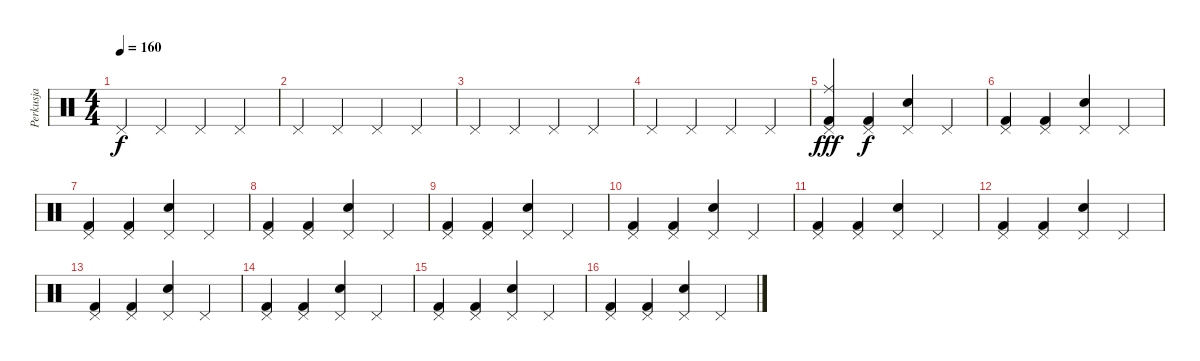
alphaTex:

\track ("Perkusja" "Perkusja") {instrument percussion}
\staff {score}
\articulation defaults
\ts (4 4)
\tempo 160
\clef neutral
\ks c "Pedal Hi-Hat (hit)".4{dy f} "Pedal Hi-Hat (hit)".4 "Pedal Hi-Hat (hit)".4 "Pedal Hi-Hat (hit)".4
|
"Pedal Hi-Hat (hit)".4 "Pedal Hi-Hat (hit)".4 "Pedal Hi-Hat (hit)".4 "Pedal Hi-Hat (hit)".4 |
"Pedal Hi-Hat (hit)".4 "Pedal Hi-Hat (hit)".4 "Pedal Hi-Hat (hit)".4 "Pedal Hi-Hat (hit)".4 |
"Pedal Hi-Hat (hit)".4 "Pedal Hi-Hat (hit)".4 "Pedal Hi-Hat (hit)".4 "Pedal Hi-Hat (hit)".4 |
("Pedal Hi-Hat (hit)" "Ride (middle)" "Kick (hit) 2").4{dy fff} ("Pedal Hi-Hat (hit)" "Kick (hit) 2").4{dy f} ("Pedal Hi-Hat (hit)" "Snare (hit) 2").4 "Pedal Hi-Hat (hit)".4 |
("Pedal Hi-Hat (hit)" "Kick (hit) 2").4 ("Pedal Hi-Hat (hit)" "Kick (hit) 2").4 ("Pedal Hi-Hat (hit)" "Snare (hit) 2").4 "Pedal Hi-Hat (hit)".4 |
("Pedal Hi-Hat (hit)" "Kick (hit) 2").4 ("Pedal Hi-Hat (hit)" "Kick (hit) 2").4 ("Pedal Hi-Hat (hit)" "Snare (hit) 2").4 "Pedal Hi-Hat (hit)".4 |
("Pedal Hi-Hat (hit)" "Kick (hit) 2").4 ("Pedal Hi-Hat (hit)" "Kick (hit) 2").4 ("Pedal Hi-Hat (hit)" "Snare (hit) 2").4 "Pedal Hi-Hat (hit)".4 |
("Pedal Hi-Hat (hit)" "Kick (hit) 2").4 ("Pedal Hi-Hat (hit)" "Kick (hit) 2").4 ("Pedal Hi-Hat (hit)" "Snare (hit) 2").4 "Pedal Hi-Hat (hit)".4 |
("Pedal Hi-Hat (hit)" "Kick (hit) 2").4 ("Pedal Hi-Hat (hit)" "Kick (hit) 2").4 ("Pedal Hi-Hat (hit)" "Snare (hit) 2").4 "Pedal Hi-Hat (hit)".4 |
("Pedal Hi-Hat (hit)" "Kick (hit) 2").4 ("Pedal Hi-Hat (hit)" "Kick (hit) 2").4 ("Pedal Hi-Hat (hit)" "Snare (hit) 2").4 "Pedal Hi-Hat (hit)".4 |
("Pedal Hi-Hat (hit)" "Kick (hit) 2").4 ("Pedal Hi-Hat (hit)" "Kick (hit) 2").4 ("Pedal Hi-Hat (hit)" "Snare (hit) 2").4 "Pedal Hi-Hat (hit)".4 |
("Pedal Hi-Hat (hit)" "Kick (hit) 2").4 ("Pedal Hi-Hat (hit)" "Kick (hit) 2").4 ("Pedal Hi-Hat (hit)" "Snare (hit) 2").4 "Pedal Hi-Hat (hit)".4 |
("Pedal Hi-Hat (hit)" "Kick (hit) 2").4 ("Pedal Hi-Hat (hit)" "Kick (hit) 2").4 ("Pedal Hi-Hat (hit)" "Snare (hit) 2").4 "Pedal Hi-Hat (hit)".4 |
("Pedal Hi-Hat (hit)" "Kick (hit) 2").4 ("Pedal Hi-Hat (hit)" "Kick (hit) 2").4 ("Pedal Hi-Hat (hit)" "Snare (hit) 2").4 "Pedal Hi-Hat (hit)".4 |
("Pedal Hi-Hat (hit)" "Kick (hit) 2").4 ("Pedal Hi-Hat (hit)" "Kick (hit) 2").4 ("Pedal Hi-Hat (hit)" "Snare (hit) 2").4 "Pedal Hi-Hat (hit)".4
